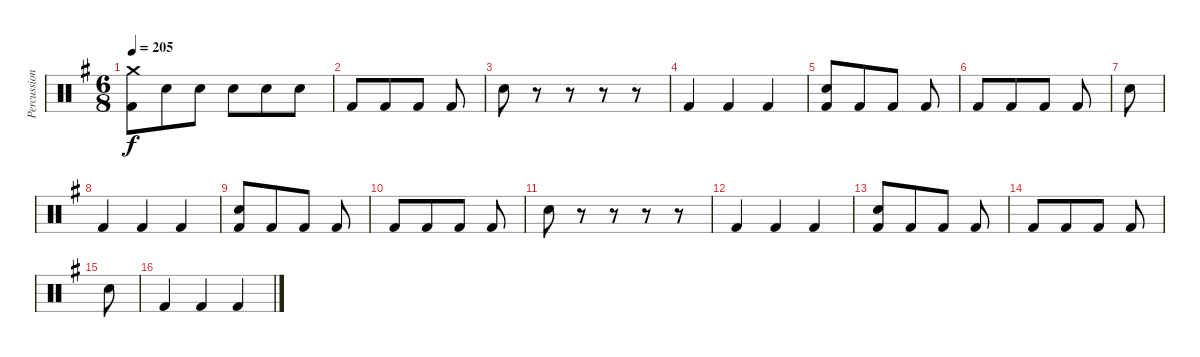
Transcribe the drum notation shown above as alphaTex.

\track ("Percussion" "Percussion") {instrument percussion}
\staff {score}
\articulation defaults
\ts (6 8)
\tempo 205
\clef neutral
\ks g
("Crash medium (hit)" "Kick (hit) 2").8{dy f} "Electric Snare (hit)".8 "Electric Snare (hit)".8 "Electric Snare (hit)".8 "Electric Snare (hit)".8 "Electric Snare (hit)".8 |
"Kick (hit) 2".8 "Kick (hit) 2".8 "Kick (hit) 2".8 "Kick (hit) 2".8 |
"Electric Snare (hit)".8 r.8 r.8 r.8 r.8 |
"Kick (hit) 2".4 "Kick (hit) 2".4 "Kick (hit) 2".4 |
("Electric Snare (hit)" "Kick (hit) 2").8 "Kick (hit) 2".8 "Kick (hit) 2".8 "Kick (hit) 2".8 |
"Kick (hit) 2".8 "Kick (hit) 2".8 "Kick (hit) 2".8 "Kick (hit) 2".8 |
"Electric Snare (hit)".8 |
"Kick (hit) 2".4 "Kick (hit) 2".4 "Kick (hit) 2".4 |
("Electric Snare (hit)" "Kick (hit) 2").8 "Kick (hit) 2".8 "Kick (hit) 2".8 "Kick (hit) 2".8 |
"Kick (hit) 2".8 "Kick (hit) 2".8 "Kick (hit) 2".8 "Kick (hit) 2".8 |
"Electric Snare (hit)".8 r.8 r.8 r.8 r.8 |
"Kick (hit) 2".4 "Kick (hit) 2".4 "Kick (hit) 2".4 |
("Electric Snare (hit)" "Kick (hit) 2").8 "Kick (hit) 2".8 "Kick (hit) 2".8 "Kick (hit) 2".8 |
"Kick (hit) 2".8 "Kick (hit) 2".8 "Kick (hit) 2".8 "Kick (hit) 2".8 |
"Electric Snare (hit)".8 |
"Kick (hit) 2".4 "Kick (hit) 2".4 "Kick (hit) 2".4
